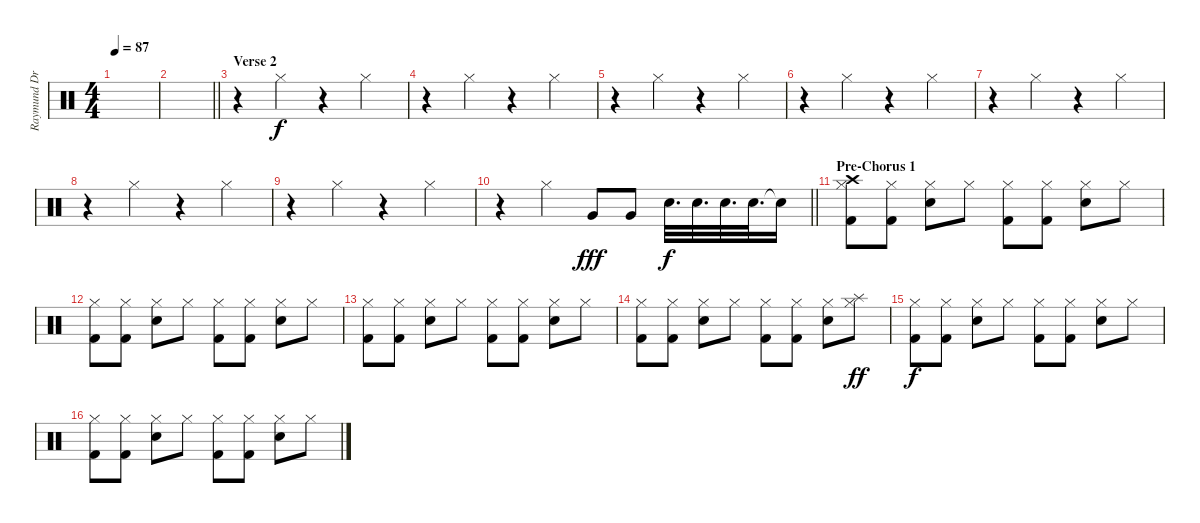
\track ("Raymund Drums" "Raymund Dr") {instrument percussion}
\staff {score}
\articulation defaults
\ts (4 4)
\tempo 87
\clef neutral
\ks c
|
\barLineRight lightlight
|
\section ("" "Verse 2")
r.4 "Hi-Hat (closed)".4{dy f} r.4 "Hi-Hat (closed)".4 |
r.4 "Hi-Hat (closed)".4 r.4 "Hi-Hat (closed)".4 |
r.4 "Hi-Hat (closed)".4 r.4 "Hi-Hat (closed)".4 |
r.4 "Hi-Hat (closed)".4 r.4 "Hi-Hat (closed)".4 |
r.4 "Hi-Hat (closed)".4 r.4 "Hi-Hat (closed)".4 |
r.4 "Hi-Hat (closed)".4 r.4 "Hi-Hat (closed)".4 |
r.4 "Hi-Hat (closed)".4 r.4 "Hi-Hat (closed)".4 |
\barLineRight lightlight
r.4 "Hi-Hat (closed)".4 "Very Low Tom (hit)".8{dy fff} "Very Low Tom (hit)".8 "Snare (hit) 2".32{d dy f} "Snare (hit) 2".32{d} "Snare (hit) 2".32{d} "Snare (hit) 2".32{d} "Snare (hit)"{t}.16 |
\section ("" "Pre-Chorus 1")
("Hi-Hat (closed)" "Kick (hit) 2" "Crash high (hit)").8 ("Hi-Hat (closed)" "Kick (hit) 2").8 ("Hi-Hat (closed)" "Snare (hit) 2").8 "Hi-Hat (closed)".8 ("Hi-Hat (closed)" "Kick (hit) 2").8 ("Hi-Hat (closed)" "Kick (hit) 2").8 ("Hi-Hat (closed)" "Snare (hit) 2").8 "Hi-Hat (closed)".8 |
("Hi-Hat (closed)" "Kick (hit) 2").8 ("Hi-Hat (closed)" "Kick (hit) 2").8 ("Hi-Hat (closed)" "Snare (hit) 2").8 "Hi-Hat (closed)".8 ("Hi-Hat (closed)" "Kick (hit) 2").8 ("Hi-Hat (closed)" "Kick (hit) 2").8 ("Hi-Hat (closed)" "Snare (hit) 2").8 "Hi-Hat (closed)".8 |
("Hi-Hat (closed)" "Kick (hit) 2").8 ("Hi-Hat (closed)" "Kick (hit) 2").8 ("Hi-Hat (closed)" "Snare (hit) 2").8 "Hi-Hat (closed)".8 ("Hi-Hat (closed)" "Kick (hit) 2").8 ("Hi-Hat (closed)" "Kick (hit) 2").8 ("Hi-Hat (closed)" "Snare (hit) 2").8 "Hi-Hat (closed)".8 |
("Hi-Hat (closed)" "Kick (hit) 2").8 ("Hi-Hat (closed)" "Kick (hit) 2").8 ("Hi-Hat (closed)" "Snare (hit) 2").8 "Hi-Hat (closed)".8 ("Hi-Hat (closed)" "Kick (hit) 2").8 ("Hi-Hat (closed)" "Kick (hit) 2").8 ("Hi-Hat (closed)" "Snare (hit) 2").8 ("Hi-Hat (closed)" "Splash (hit)").8{dy ff} |
("Hi-Hat (closed)" "Kick (hit) 2").8{dy f} ("Hi-Hat (closed)" "Kick (hit) 2").8 ("Hi-Hat (closed)" "Snare (hit) 2").8 "Hi-Hat (closed)".8 ("Hi-Hat (closed)" "Kick (hit) 2").8 ("Hi-Hat (closed)" "Kick (hit) 2").8 ("Hi-Hat (closed)" "Snare (hit) 2").8 "Hi-Hat (closed)".8 |
("Hi-Hat (closed)" "Kick (hit) 2").8 ("Hi-Hat (closed)" "Kick (hit) 2").8 ("Hi-Hat (closed)" "Snare (hit) 2").8 "Hi-Hat (closed)".8 ("Hi-Hat (closed)" "Kick (hit) 2").8 ("Hi-Hat (closed)" "Kick (hit) 2").8 ("Hi-Hat (closed)" "Snare (hit) 2").8 "Hi-Hat (closed)".8
